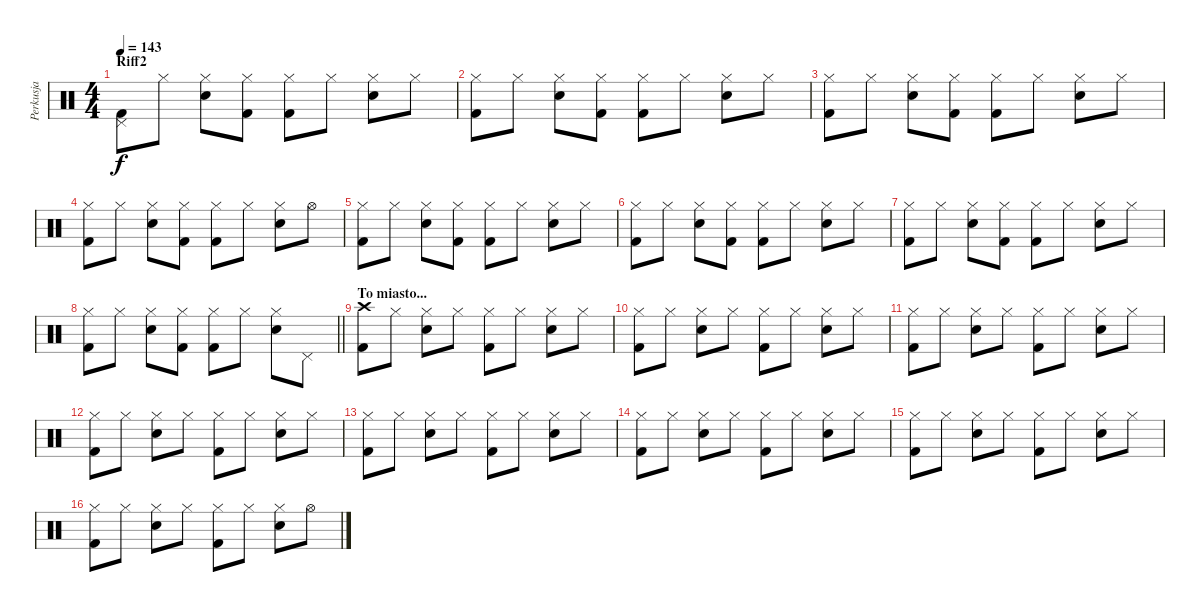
\track ("Perkusja" "Perkusja") {instrument percussion}
\staff {score}
\articulation defaults
\ts (4 4)
\section ("" "Riff2")
\tempo 143
\clef neutral
\ks c
("Pedal Hi-Hat (hit)" "Kick (hit) 2").8{dy f} "Hi-Hat (closed)".8 ("Hi-Hat (closed)" "Electric Snare (hit)").8 ("Hi-Hat (closed)" "Kick (hit) 2").8 ("Hi-Hat (closed)" "Kick (hit) 2").8 "Hi-Hat (closed)".8 ("Hi-Hat (closed)" "Electric Snare (hit)").8 "Hi-Hat (closed)".8 |
("Hi-Hat (closed)" "Kick (hit) 2").8 "Hi-Hat (closed)".8 ("Hi-Hat (closed)" "Electric Snare (hit)").8 ("Hi-Hat (closed)" "Kick (hit) 2").8 ("Hi-Hat (closed)" "Kick (hit) 2").8 "Hi-Hat (closed)".8 ("Hi-Hat (closed)" "Electric Snare (hit)").8 "Hi-Hat (closed)".8 |
("Hi-Hat (closed)" "Kick (hit) 2").8 "Hi-Hat (closed)".8 ("Hi-Hat (closed)" "Electric Snare (hit)").8 ("Hi-Hat (closed)" "Kick (hit) 2").8 ("Hi-Hat (closed)" "Kick (hit) 2").8 "Hi-Hat (closed)".8 ("Hi-Hat (closed)" "Electric Snare (hit)").8 "Hi-Hat (closed)".8 |
("Hi-Hat (closed)" "Kick (hit) 2").8 "Hi-Hat (closed)".8 ("Hi-Hat (closed)" "Electric Snare (hit)").8 ("Hi-Hat (closed)" "Kick (hit) 2").8 ("Hi-Hat (closed)" "Kick (hit) 2").8 "Hi-Hat (closed)".8 ("Hi-Hat (closed)" "Electric Snare (hit)").8 "Hi-Hat (open)".8 |
("Hi-Hat (closed)" "Kick (hit) 2").8 "Hi-Hat (closed)".8 ("Hi-Hat (closed)" "Electric Snare (hit)").8 ("Hi-Hat (closed)" "Kick (hit) 2").8 ("Hi-Hat (closed)" "Kick (hit) 2").8 "Hi-Hat (closed)".8 ("Hi-Hat (closed)" "Electric Snare (hit)").8 "Hi-Hat (closed)".8 |
("Hi-Hat (closed)" "Kick (hit) 2").8 "Hi-Hat (closed)".8 ("Hi-Hat (closed)" "Electric Snare (hit)").8 ("Hi-Hat (closed)" "Kick (hit) 2").8 ("Hi-Hat (closed)" "Kick (hit) 2").8 "Hi-Hat (closed)".8 ("Hi-Hat (closed)" "Electric Snare (hit)").8 "Hi-Hat (closed)".8 |
("Hi-Hat (closed)" "Kick (hit) 2").8 "Hi-Hat (closed)".8 ("Hi-Hat (closed)" "Electric Snare (hit)").8 ("Hi-Hat (closed)" "Kick (hit) 2").8 ("Hi-Hat (closed)" "Kick (hit) 2").8 "Hi-Hat (closed)".8 ("Hi-Hat (closed)" "Electric Snare (hit)").8 "Hi-Hat (closed)".8 |
\barLineRight lightlight
("Hi-Hat (closed)" "Kick (hit) 2").8 "Hi-Hat (closed)".8 ("Hi-Hat (closed)" "Electric Snare (hit)").8 ("Hi-Hat (closed)" "Kick (hit) 2").8 ("Hi-Hat (closed)" "Kick (hit) 2").8 "Hi-Hat (closed)".8 ("Hi-Hat (closed)" "Electric Snare (hit)").8 "Pedal Hi-Hat (hit)".8 |
\section ("" "To miasto...")
("Crash high (hit)" "Kick (hit) 2").8 "Hi-Hat (closed)".8 ("Hi-Hat (closed)" "Electric Snare (hit)").8 "Hi-Hat (closed)".8 ("Hi-Hat (closed)" "Kick (hit) 2").8 "Hi-Hat (closed)".8 ("Hi-Hat (closed)" "Electric Snare (hit)").8 "Hi-Hat (closed)".8 |
("Hi-Hat (closed)" "Kick (hit) 2").8 "Hi-Hat (closed)".8 ("Hi-Hat (closed)" "Electric Snare (hit)").8 "Hi-Hat (closed)".8 ("Hi-Hat (closed)" "Kick (hit) 2").8 "Hi-Hat (closed)".8 ("Hi-Hat (closed)" "Electric Snare (hit)").8 "Hi-Hat (closed)".8 |
("Hi-Hat (closed)" "Kick (hit) 2").8 "Hi-Hat (closed)".8 ("Hi-Hat (closed)" "Electric Snare (hit)").8 "Hi-Hat (closed)".8 ("Hi-Hat (closed)" "Kick (hit) 2").8 "Hi-Hat (closed)".8 ("Hi-Hat (closed)" "Electric Snare (hit)").8 "Hi-Hat (closed)".8 |
("Hi-Hat (closed)" "Kick (hit) 2").8 "Hi-Hat (closed)".8 ("Hi-Hat (closed)" "Electric Snare (hit)").8 "Hi-Hat (closed)".8 ("Hi-Hat (closed)" "Kick (hit) 2").8 "Hi-Hat (closed)".8 ("Hi-Hat (closed)" "Electric Snare (hit)").8 "Hi-Hat (closed)".8 |
("Hi-Hat (closed)" "Kick (hit) 2").8 "Hi-Hat (closed)".8 ("Hi-Hat (closed)" "Electric Snare (hit)").8 "Hi-Hat (closed)".8 ("Hi-Hat (closed)" "Kick (hit) 2").8 "Hi-Hat (closed)".8 ("Hi-Hat (closed)" "Electric Snare (hit)").8 "Hi-Hat (closed)".8 |
("Hi-Hat (closed)" "Kick (hit) 2").8 "Hi-Hat (closed)".8 ("Hi-Hat (closed)" "Electric Snare (hit)").8 "Hi-Hat (closed)".8 ("Hi-Hat (closed)" "Kick (hit) 2").8 "Hi-Hat (closed)".8 ("Hi-Hat (closed)" "Electric Snare (hit)").8 "Hi-Hat (closed)".8 |
("Hi-Hat (closed)" "Kick (hit) 2").8 "Hi-Hat (closed)".8 ("Hi-Hat (closed)" "Electric Snare (hit)").8 "Hi-Hat (closed)".8 ("Hi-Hat (closed)" "Kick (hit) 2").8 "Hi-Hat (closed)".8 ("Hi-Hat (closed)" "Electric Snare (hit)").8 "Hi-Hat (closed)".8 |
("Hi-Hat (closed)" "Kick (hit) 2").8 "Hi-Hat (closed)".8 ("Hi-Hat (closed)" "Electric Snare (hit)").8 "Hi-Hat (closed)".8 ("Hi-Hat (closed)" "Kick (hit) 2").8 "Hi-Hat (closed)".8 ("Hi-Hat (closed)" "Electric Snare (hit)").8 "Hi-Hat (open)".8
